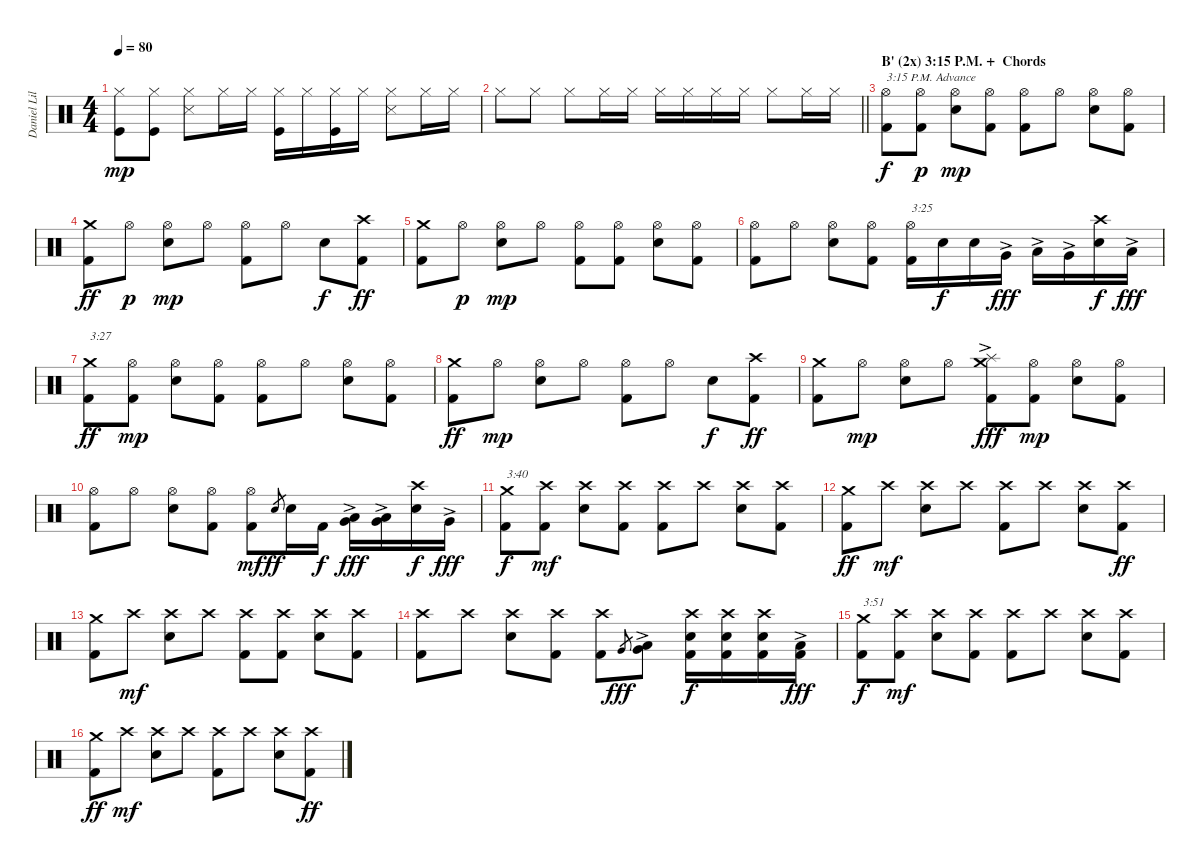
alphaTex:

\track ("Daniel Liljekvist (Drums)" "Daniel Lil") {instrument percussion}
\staff {score}
\articulation defaults
\ts (4 4)
\tempo 80
\clef neutral
\ks c
("Kick (hit)" "Hi-Hat (closed)").8{dy mp} ("Kick (hit)" "Hi-Hat (closed)").8 ("Snare (side stick) 3" "Hi-Hat (closed)").8 "Hi-Hat (closed)".16 "Hi-Hat (closed)".16 ("Kick (hit)" "Hi-Hat (closed)").16 "Hi-Hat (closed)".16 ("Kick (hit)" "Hi-Hat (closed)").16 "Hi-Hat (closed)".16 ("Snare (side stick) 3" "Hi-Hat (closed)").8 "Hi-Hat (closed)".16 "Hi-Hat (closed)".16 |
\barLineRight lightlight "Hi-Hat (closed)".8 "Hi-Hat (closed)".8 "Hi-Hat (closed)".8 "Hi-Hat (closed)".16 "Hi-Hat (closed)".16 "Hi-Hat (closed)".16 "Hi-Hat (closed)".16 "Hi-Hat (closed)".16 "Hi-Hat (closed)".16 "Hi-Hat (closed)".8 "Hi-Hat (closed)".16 "Hi-Hat (closed)".16
|
\section ("" "B' (2x) 3:15 P.M. +  Chords")
("Kick (hit) 2" "Hi-Hat (open)").8{txt "3:15 P.M. Advance" dy f} ("Kick (hit) 2" "Hi-Hat (open)").8{dy p} ("Electric Snare (hit)" "Hi-Hat (open)").8{dy mp} ("Kick (hit) 2" "Hi-Hat (open)").8 ("Kick (hit) 2" "Hi-Hat (open)").8 "Hi-Hat (open)".8 ("Electric Snare (hit)" "Hi-Hat (open)").8 ("Kick (hit) 2" "Hi-Hat (open)").8 |
("Kick (hit) 2" "Crash medium (hit)").8{dy ff} "Hi-Hat (open)".8{dy p} ("Electric Snare (hit)" "Hi-Hat (open)").8{dy mp} "Hi-Hat (open)".8 ("Kick (hit) 2" "Hi-Hat (open)").8 "Hi-Hat (open)".8 "Electric Snare (hit)".8{dy f} ("Kick (hit) 2" "Crash high (hit)").8{dy ff} |
("Kick (hit) 2" "Crash medium (hit)").8 "Hi-Hat (open)".8{dy p} ("Electric Snare (hit)" "Hi-Hat (open)").8{dy mp} "Hi-Hat (open)".8 ("Kick (hit) 2" "Hi-Hat (open)").8 ("Kick (hit) 2" "Hi-Hat (open)").8 ("Electric Snare (hit)" "Hi-Hat (open)").8 ("Kick (hit) 2" "Hi-Hat (open)").8 |
("Kick (hit) 2" "Hi-Hat (open)").8 "Hi-Hat (open)".8 ("Electric Snare (hit)" "Hi-Hat (open)").8 ("Kick (hit) 2" "Hi-Hat (open)").8 ("Kick (hit) 2" "Hi-Hat (open)").16{txt "3:25"} "Electric Snare (hit)".16{dy f} "Electric Snare (hit)".16 "Very Low Tom (hit)"{ac}.16{dy fff} "Low Tom (hit)"{ac}.16 "Very Low Tom (hit)"{ac}.16 ("Electric Snare (hit)" "Crash high (hit)").16{dy f} "Low Tom (hit)"{ac}.16{dy fff} |
("Kick (hit) 2" "Crash medium (hit)").8{txt "3:27" dy ff} ("Kick (hit) 2" "Hi-Hat (open)").8{dy mp} ("Electric Snare (hit)" "Hi-Hat (open)").8 ("Kick (hit) 2" "Hi-Hat (open)").8 ("Kick (hit) 2" "Hi-Hat (open)").8 "Hi-Hat (open)".8 ("Electric Snare (hit)" "Hi-Hat (open)").8 ("Kick (hit) 2" "Hi-Hat (open)").8 |
("Kick (hit) 2" "Crash medium (hit)").8{dy ff} "Hi-Hat (open)".8{dy mp} ("Electric Snare (hit)" "Hi-Hat (open)").8 "Hi-Hat (open)".8 ("Kick (hit) 2" "Hi-Hat (open)").8 "Hi-Hat (open)".8 "Electric Snare (hit)".8{dy f} ("Kick (hit) 2" "Crash high (hit)").8{dy ff} |
("Kick (hit) 2" "Crash medium (hit)").8 "Hi-Hat (open)".8{dy mp} ("Electric Snare (hit)" "Hi-Hat (open)").8 "Hi-Hat (open)".8 ("Kick (hit) 2" "Crash medium (hit)" "Splash (hit)"{ac}).8{dy fff} ("Kick (hit) 2" "Hi-Hat (open)").8{dy mp} ("Electric Snare (hit)" "Hi-Hat (open)").8 ("Kick (hit) 2" "Hi-Hat (open)").8 |
("Kick (hit) 2" "Hi-Hat (open)").8 "Hi-Hat (open)".8 ("Electric Snare (hit)" "Hi-Hat (open)").8 ("Kick (hit) 2" "Hi-Hat (open)").8 ("Kick (hit) 2" "Hi-Hat (open)").8{dy mf} "Electric Snare (hit)".8{gr dy ff} "Electric Snare (hit)".16 "Kick (hit) 2".16{dy f} ("Very Low Tom (hit)"{ac} "Low Tom (hit)"{ac}).16{dy fff} ("Very Low Tom (hit)"{ac} "Low Tom (hit)"{ac}).16 ("Electric Snare (hit)" "Crash high (hit)").16{dy f} "Very Low Tom (hit)"{ac}.16{dy fff} |
("Kick (hit) 2" "Crash medium (hit)").8{txt "3:40" dy f} ("Kick (hit) 2" "Crash high (hit)").8{dy mf} ("Electric Snare (hit)" "Crash high (hit)").8 ("Kick (hit) 2" "Crash high (hit)").8 ("Kick (hit) 2" "Crash high (hit)").8 "Crash high (hit)".8 ("Electric Snare (hit)" "Crash high (hit)").8 ("Kick (hit) 2" "Crash high (hit)").8 |
("Kick (hit) 2" "Crash medium (hit)").8{dy ff} "Crash high (hit)".8{dy mf} ("Electric Snare (hit)" "Crash high (hit)").8 "Crash high (hit)".8 ("Kick (hit) 2" "Crash high (hit)").8 "Crash high (hit)".8 ("Electric Snare (hit)" "Crash high (hit)").8 ("Kick (hit) 2" "Crash high (hit)").8{dy ff} |
("Kick (hit) 2" "Crash medium (hit)").8 "Crash high (hit)".8{dy mf} ("Electric Snare (hit)" "Crash high (hit)").8 "Crash high (hit)".8 ("Kick (hit) 2" "Crash high (hit)").8 ("Kick (hit) 2" "Crash high (hit)").8 ("Electric Snare (hit)" "Crash high (hit)").8 ("Kick (hit) 2" "Crash high (hit)").8 |
("Kick (hit) 2" "Crash high (hit)").8 "Crash high (hit)".8 ("Electric Snare (hit)" "Crash high (hit)").8 ("Kick (hit) 2" "Crash high (hit)").8 ("Kick (hit) 2" "Crash high (hit)").8 "Very Low Tom (hit)".8{gr dy fff} ("Very Low Tom (hit)"{ac} "Low Floor Tom (hit)").8 ("Kick (hit) 2" "Electric Snare (hit)" "Crash high (hit)").16{dy f} ("Kick (hit) 2" "Electric Snare (hit)" "Crash high (hit)").16 ("Kick (hit) 2" "Electric Snare (hit)" "Crash high (hit)").16 ("Kick (hit) 2" "Low Tom (hit)"{ac}).16{dy fff} |
("Kick (hit) 2" "Crash medium (hit)").8{txt "3:51" dy f} ("Kick (hit) 2" "Crash high (hit)").8{dy mf} ("Electric Snare (hit)" "Crash high (hit)").8 ("Kick (hit) 2" "Crash high (hit)").8 ("Kick (hit) 2" "Crash high (hit)").8 "Crash high (hit)".8 ("Electric Snare (hit)" "Crash high (hit)").8 ("Kick (hit) 2" "Crash high (hit)").8 |
("Kick (hit) 2" "Crash medium (hit)").8{dy ff} "Crash high (hit)".8{dy mf} ("Electric Snare (hit)" "Crash high (hit)").8 "Crash high (hit)".8 ("Kick (hit) 2" "Crash high (hit)").8 "Crash high (hit)".8 ("Electric Snare (hit)" "Crash high (hit)").8 ("Kick (hit) 2" "Crash high (hit)").8{dy ff}
